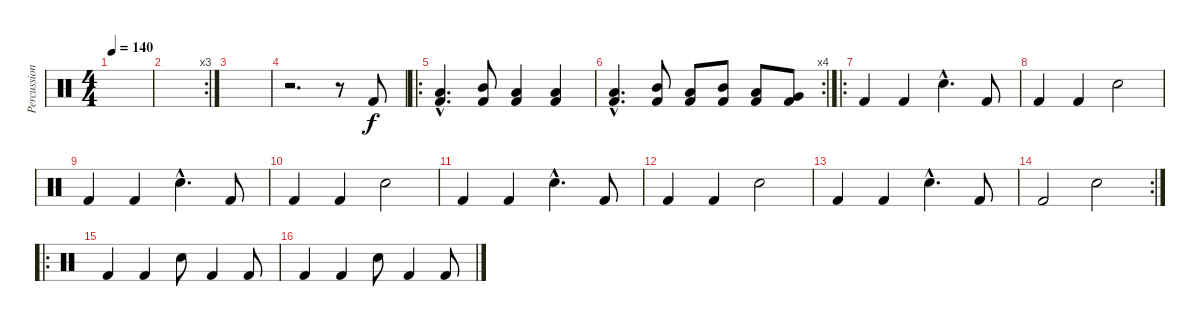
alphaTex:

\track ("Percussions" "Percussion") {instrument percussion}
\staff {score}
\articulation defaults
\ts (4 4)
\tempo 140
\clef neutral
\ks c
|
\rc 3
|
|
r.2{d} r.8 "Kick (hit) 2".8 |
\ro
("Low Tom (hit)"{hac} "Kick (hit) 2"{hac}).4{d} ("Mid Tom (hit)" "Kick (hit) 2").8 ("Low Tom (hit)" "Kick (hit) 2").4 ("Low Tom (hit)" "Kick (hit) 2").4 |
\rc 4
("Low Tom (hit)"{hac} "Kick (hit) 2"{hac}).4{d} ("Mid Tom (hit)" "Kick (hit) 2").8 ("Low Tom (hit)" "Kick (hit) 2").8 ("Mid Tom (hit)" "Kick (hit) 2").8 ("Low Tom (hit)" "Kick (hit) 2").8 ("Very Low Tom (hit)" "Kick (hit) 2").8 |
\ro "Kick (hit) 2".4 "Kick (hit) 2".4 "Electric Snare (hit)"{hac}.4{d} "Kick (hit) 2".8
|
"Kick (hit) 2".4 "Kick (hit) 2".4 "Electric Snare (hit)".2 |
"Kick (hit) 2".4 "Kick (hit) 2".4 "Electric Snare (hit)"{hac}.4{d} "Kick (hit) 2".8 |
"Kick (hit) 2".4 "Kick (hit) 2".4 "Electric Snare (hit)".2 |
"Kick (hit) 2".4 "Kick (hit) 2".4 "Electric Snare (hit)"{hac}.4{d} "Kick (hit) 2".8 |
"Kick (hit) 2".4 "Kick (hit) 2".4 "Electric Snare (hit)".2 |
"Kick (hit) 2".4 "Kick (hit) 2".4 "Electric Snare (hit)"{hac}.4{d} "Kick (hit) 2".8 |
\rc 2 "Kick (hit) 2".2 "Electric Snare (hit)".2
|
\ro "Kick (hit) 2".4 "Kick (hit) 2".4 "Snare (hit) 2".8 "Kick (hit) 2".4 "Kick (hit) 2".8
|
"Kick (hit) 2".4 "Kick (hit) 2".4 "Snare (hit) 2".8 "Kick (hit) 2".4 "Kick (hit) 2".8
